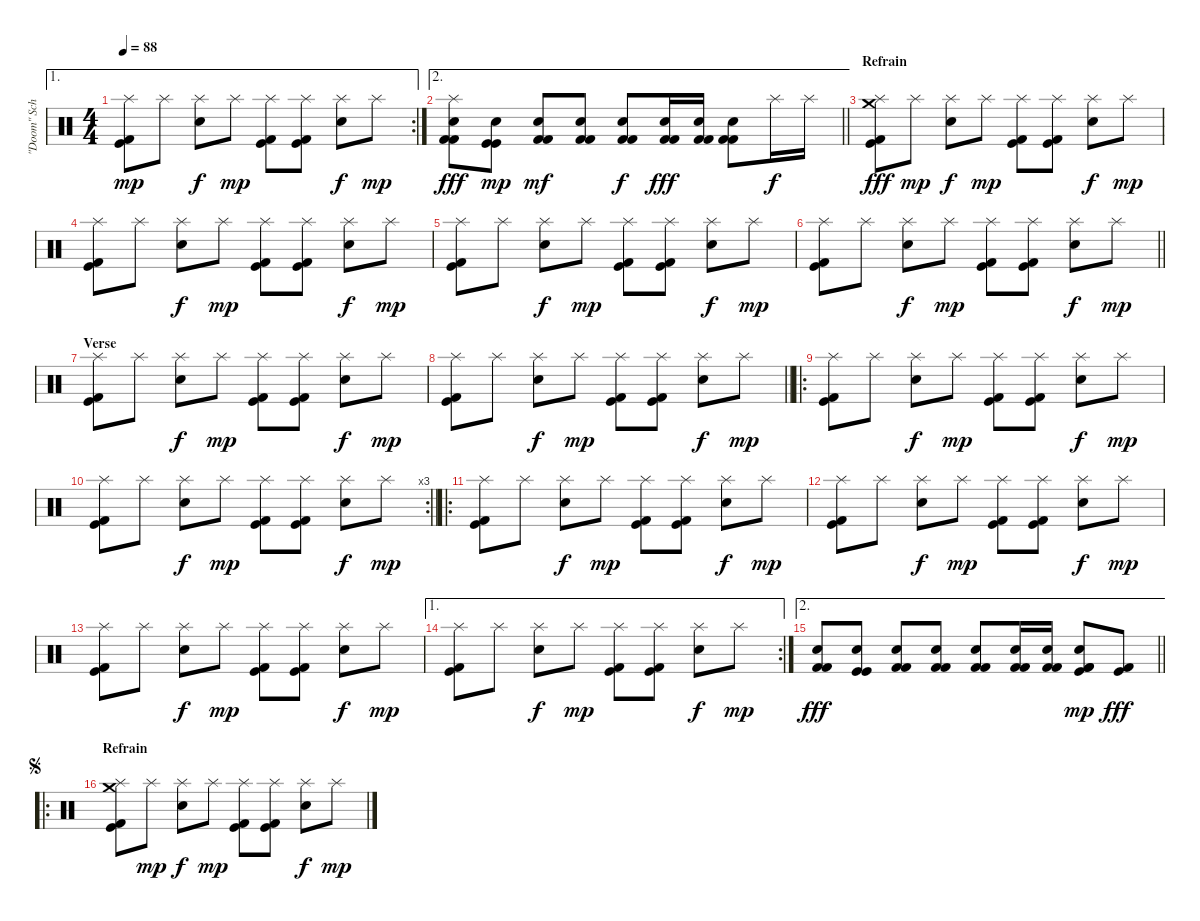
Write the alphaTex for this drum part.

\track ("\"Doom\" Schneider" "\"Doom\" Sch") {instrument percussion}
\staff {score}
\articulation defaults
\ae 1
\rc 2
\ts (4 4)
\tempo 88
\clef neutral
\ks c
("Splash (hit)" "Kick (hit)" "Kick (hit) 2").8{dy mp} "Splash (hit)".8 ("Splash (hit)" "Snare (hit) 2").8{dy f} "Splash (hit)".8{dy mp} ("Splash (hit)" "Kick (hit)" "Kick (hit) 2").8 ("Splash (hit)" "Kick (hit)" "Kick (hit) 2").8 ("Splash (hit)" "Snare (hit) 2").8{dy f} "Splash (hit)".8{dy mp} |
\ae 2
\barLineRight lightlight
("Kick (hit) 2" "Kick (hit) 2" "Electric Snare (hit)" "Splash (hit)").8{dy fff} ("Kick (hit)" "Kick (hit)" "Electric Snare (hit)").8{dy mp} ("Kick (hit) 2" "Kick (hit) 2" "Electric Snare (hit)").8{dy mf} ("Kick (hit) 2" "Kick (hit) 2" "Electric Snare (hit)").8 ("Kick (hit) 2" "Kick (hit) 2" "Electric Snare (hit)").8{dy f} ("Kick (hit) 2" "Kick (hit) 2" "Electric Snare (hit)").16{dy fff} ("Kick (hit) 2" "Kick (hit) 2" "Electric Snare (hit)").16 ("Kick (hit) 2" "Kick (hit) 2" "Electric Snare (hit)").8 "Splash (hit)".16{dy f} "Splash (hit)".16 |
\section ("" "Refrain")
("Splash (hit)" "Kick (hit)" "Kick (hit) 2" "Crash medium (hit)").8{dy fff} "Splash (hit)".8{dy mp} ("Splash (hit)" "Snare (hit) 2").8{dy f} "Splash (hit)".8{dy mp} ("Splash (hit)" "Kick (hit)" "Kick (hit) 2").8 ("Splash (hit)" "Kick (hit)" "Kick (hit) 2").8 ("Splash (hit)" "Snare (hit) 2").8{dy f} "Splash (hit)".8{dy mp} |
("Splash (hit)" "Kick (hit)" "Kick (hit) 2").8 "Splash (hit)".8 ("Splash (hit)" "Snare (hit) 2").8{dy f} "Splash (hit)".8{dy mp} ("Splash (hit)" "Kick (hit)" "Kick (hit) 2").8 ("Splash (hit)" "Kick (hit)" "Kick (hit) 2").8 ("Splash (hit)" "Snare (hit) 2").8{dy f} "Splash (hit)".8{dy mp} |
("Splash (hit)" "Kick (hit)" "Kick (hit) 2").8 "Splash (hit)".8 ("Splash (hit)" "Snare (hit) 2").8{dy f} "Splash (hit)".8{dy mp} ("Splash (hit)" "Kick (hit)" "Kick (hit) 2").8 ("Splash (hit)" "Kick (hit)" "Kick (hit) 2").8 ("Splash (hit)" "Snare (hit) 2").8{dy f} "Splash (hit)".8{dy mp} |
\barLineRight lightlight
("Splash (hit)" "Kick (hit)" "Kick (hit) 2").8 "Splash (hit)".8 ("Splash (hit)" "Snare (hit) 2").8{dy f} "Splash (hit)".8{dy mp} ("Splash (hit)" "Kick (hit)" "Kick (hit) 2").8 ("Splash (hit)" "Kick (hit)" "Kick (hit) 2").8 ("Splash (hit)" "Snare (hit) 2").8{dy f} "Splash (hit)".8{dy mp} |
\section ("" "Verse")
("Splash (hit)" "Kick (hit)" "Kick (hit) 2").8 "Splash (hit)".8 ("Splash (hit)" "Snare (hit) 2").8{dy f} "Splash (hit)".8{dy mp} ("Splash (hit)" "Kick (hit)" "Kick (hit) 2").8 ("Splash (hit)" "Kick (hit)" "Kick (hit) 2").8 ("Splash (hit)" "Snare (hit) 2").8{dy f} "Splash (hit)".8{dy mp} |
\barLineRight lightlight
("Splash (hit)" "Kick (hit)" "Kick (hit) 2").8 "Splash (hit)".8 ("Splash (hit)" "Snare (hit) 2").8{dy f} "Splash (hit)".8{dy mp} ("Splash (hit)" "Kick (hit)" "Kick (hit) 2").8 ("Splash (hit)" "Kick (hit)" "Kick (hit) 2").8 ("Splash (hit)" "Snare (hit) 2").8{dy f} "Splash (hit)".8{dy mp} |
\ro
("Splash (hit)" "Kick (hit)" "Kick (hit) 2").8 "Splash (hit)".8 ("Splash (hit)" "Snare (hit) 2").8{dy f} "Splash (hit)".8{dy mp} ("Splash (hit)" "Kick (hit)" "Kick (hit) 2").8 ("Splash (hit)" "Kick (hit)" "Kick (hit) 2").8 ("Splash (hit)" "Snare (hit) 2").8{dy f} "Splash (hit)".8{dy mp} |
\rc 3
\barLineRight lightlight
("Splash (hit)" "Kick (hit)" "Kick (hit) 2").8 "Splash (hit)".8 ("Splash (hit)" "Snare (hit) 2").8{dy f} "Splash (hit)".8{dy mp} ("Splash (hit)" "Kick (hit)" "Kick (hit) 2").8 ("Splash (hit)" "Kick (hit)" "Kick (hit) 2").8 ("Splash (hit)" "Snare (hit) 2").8{dy f} "Splash (hit)".8{dy mp} |
\ro
("Splash (hit)" "Kick (hit)" "Kick (hit) 2").8 "Splash (hit)".8 ("Splash (hit)" "Snare (hit) 2").8{dy f} "Splash (hit)".8{dy mp} ("Splash (hit)" "Kick (hit)" "Kick (hit) 2").8 ("Splash (hit)" "Kick (hit)" "Kick (hit) 2").8 ("Splash (hit)" "Snare (hit) 2").8{dy f} "Splash (hit)".8{dy mp} |
("Splash (hit)" "Kick (hit)" "Kick (hit) 2").8 "Splash (hit)".8 ("Splash (hit)" "Snare (hit) 2").8{dy f} "Splash (hit)".8{dy mp} ("Splash (hit)" "Kick (hit)" "Kick (hit) 2").8 ("Splash (hit)" "Kick (hit)" "Kick (hit) 2").8 ("Splash (hit)" "Snare (hit) 2").8{dy f} "Splash (hit)".8{dy mp} |
("Splash (hit)" "Kick (hit)" "Kick (hit) 2").8 "Splash (hit)".8 ("Splash (hit)" "Snare (hit) 2").8{dy f} "Splash (hit)".8{dy mp} ("Splash (hit)" "Kick (hit)" "Kick (hit) 2").8 ("Splash (hit)" "Kick (hit)" "Kick (hit) 2").8 ("Splash (hit)" "Snare (hit) 2").8{dy f} "Splash (hit)".8{dy mp} |
\ae 1
\rc 2
("Splash (hit)" "Kick (hit)" "Kick (hit) 2").8 "Splash (hit)".8 ("Splash (hit)" "Snare (hit) 2").8{dy f} "Splash (hit)".8{dy mp} ("Splash (hit)" "Kick (hit)" "Kick (hit) 2").8 ("Splash (hit)" "Kick (hit)" "Kick (hit) 2").8 ("Splash (hit)" "Snare (hit) 2").8{dy f} "Splash (hit)".8{dy mp} |
\ae 2
\barLineRight lightlight
("Kick (hit) 2" "Kick (hit) 2" "Electric Snare (hit)").8{dy fff} ("Kick (hit)" "Kick (hit)" "Snare (hit) 2").8 ("Kick (hit) 2" "Kick (hit) 2" "Electric Snare (hit)").8 ("Kick (hit) 2" "Kick (hit) 2" "Electric Snare (hit)").8 ("Kick (hit) 2" "Kick (hit) 2" "Electric Snare (hit)").8 ("Kick (hit) 2" "Kick (hit) 2" "Electric Snare (hit)").16 ("Kick (hit) 2" "Kick (hit) 2" "Electric Snare (hit)").16 ("Kick (hit) 2" "Kick (hit) 2" "Electric Snare (hit)" "Kick (hit)"{tr (35 32)}).8{dy mp} ("Kick (hit)" "Kick (hit) 2").8{dy fff} |
\ro
\section ("" "Refrain")
\jump segno
("Splash (hit)" "Kick (hit)" "Kick (hit) 2" "Crash medium (hit)").8 "Splash (hit)".8{dy mp} ("Splash (hit)" "Snare (hit) 2").8{dy f} "Splash (hit)".8{dy mp} ("Splash (hit)" "Kick (hit)" "Kick (hit) 2").8 ("Splash (hit)" "Kick (hit)" "Kick (hit) 2").8 ("Splash (hit)" "Snare (hit) 2").8{dy f} "Splash (hit)".8{dy mp}
